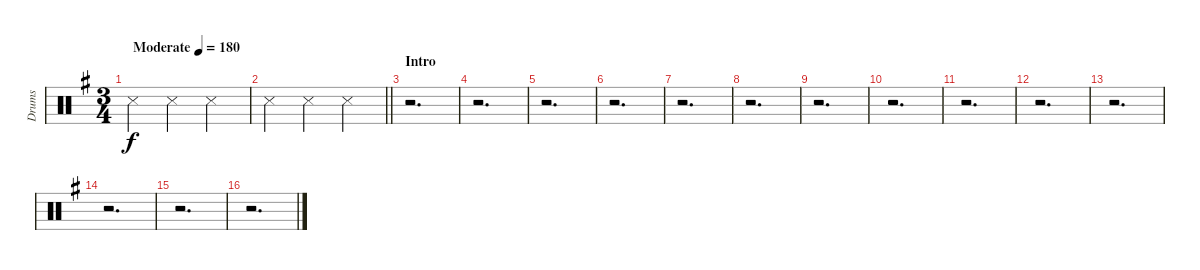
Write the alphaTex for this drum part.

\track ("Drums" "Drums") {instrument percussion bank 24}
\staff {score}
\articulation defaults
\ts (3 4)
\tempo (180 "Moderate")
\clef neutral
\ks eminor "Snare (side stick) 3".4{dy f} "Snare (side stick) 3".4 "Snare (side stick) 3".4
|
\barLineRight lightlight "Snare (side stick) 3".4 "Snare (side stick) 3".4 "Snare (side stick) 3".4
|
\section ("" "Intro")
r.2{d} |
r.2{d} |
r.2{d} |
r.2{d} |
r.2{d} |
r.2{d} |
r.2{d} |
r.2{d} |
r.2{d} |
r.2{d} |
r.2{d} |
r.2{d} |
r.2{d} |
r.2{d}
